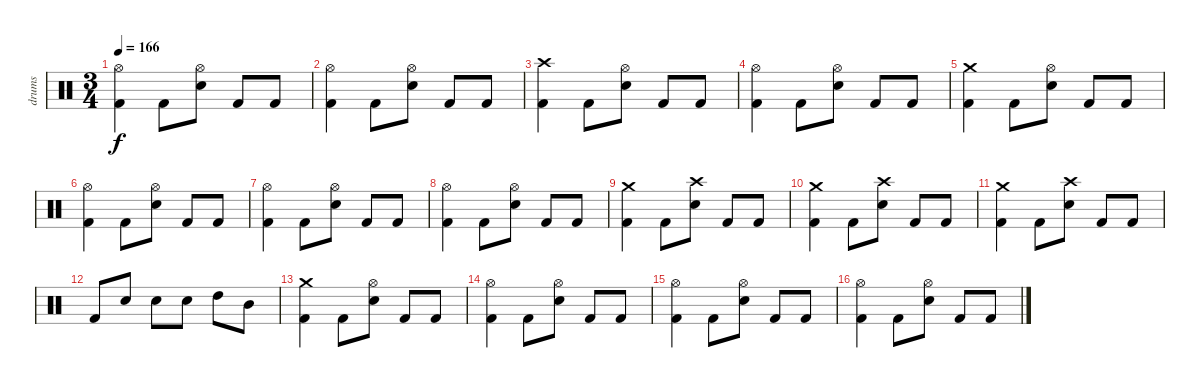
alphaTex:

\track ("drums" "drums") {instrument percussion}
\staff {score}
\articulation defaults
\ts (3 4)
\tempo 166
\clef neutral
\ks c
("Hi-Hat (open)" "Kick (hit) 2").4{dy f} "Kick (hit) 2".8 ("Hi-Hat (open)" "Electric Snare (hit)").8 "Kick (hit) 2".8 "Kick (hit) 2".8 |
("Hi-Hat (open)" "Kick (hit) 2").4 "Kick (hit) 2".8 ("Hi-Hat (open)" "Electric Snare (hit)").8 "Kick (hit) 2".8 "Kick (hit) 2".8 |
("Crash high (hit)" "Kick (hit) 2").4 "Kick (hit) 2".8 ("Hi-Hat (open)" "Electric Snare (hit)").8 "Kick (hit) 2".8 "Kick (hit) 2".8 |
("Hi-Hat (open)" "Kick (hit) 2").4 "Kick (hit) 2".8 ("Hi-Hat (open)" "Electric Snare (hit)").8 "Kick (hit) 2".8 "Kick (hit) 2".8 |
("Crash medium (hit)" "Kick (hit) 2").4 "Kick (hit) 2".8 ("Hi-Hat (open)" "Electric Snare (hit)").8 "Kick (hit) 2".8 "Kick (hit) 2".8 |
("Hi-Hat (open)" "Kick (hit) 2").4 "Kick (hit) 2".8 ("Hi-Hat (open)" "Electric Snare (hit)").8 "Kick (hit) 2".8 "Kick (hit) 2".8 |
("Hi-Hat (open)" "Kick (hit) 2").4 "Kick (hit) 2".8 ("Hi-Hat (open)" "Electric Snare (hit)").8 "Kick (hit) 2".8 "Kick (hit) 2".8 |
("Hi-Hat (open)" "Kick (hit) 2").4 "Kick (hit) 2".8 ("Hi-Hat (open)" "Electric Snare (hit)").8 "Kick (hit) 2".8 "Kick (hit) 2".8 |
("Crash medium (hit)" "Kick (hit) 2").4 "Kick (hit) 2".8 ("Crash high (hit)" "Electric Snare (hit)").8 "Kick (hit) 2".8 "Kick (hit) 2".8 |
("Crash medium (hit)" "Kick (hit) 2").4 "Kick (hit) 2".8 ("Crash high (hit)" "Electric Snare (hit)").8 "Kick (hit) 2".8 "Kick (hit) 2".8 |
("Crash medium (hit)" "Kick (hit) 2").4 "Kick (hit) 2".8 ("Crash high (hit)" "Electric Snare (hit)").8 "Kick (hit) 2".8 "Kick (hit) 2".8 |
"Kick (hit) 2".8 "Electric Snare (hit)".8 "Electric Snare (hit)".8 "Electric Snare (hit)".8 "High Tom (hit)".8 "Mid Tom (hit)".8 |
("Crash medium (hit)" "Kick (hit) 2").4 "Kick (hit) 2".8 ("Hi-Hat (open)" "Electric Snare (hit)").8 "Kick (hit) 2".8 "Kick (hit) 2".8 |
("Hi-Hat (open)" "Kick (hit) 2").4 "Kick (hit) 2".8 ("Hi-Hat (open)" "Electric Snare (hit)").8 "Kick (hit) 2".8 "Kick (hit) 2".8 |
("Hi-Hat (open)" "Kick (hit) 2").4 "Kick (hit) 2".8 ("Hi-Hat (open)" "Electric Snare (hit)").8 "Kick (hit) 2".8 "Kick (hit) 2".8 |
("Hi-Hat (open)" "Kick (hit) 2").4 "Kick (hit) 2".8 ("Hi-Hat (open)" "Electric Snare (hit)").8 "Kick (hit) 2".8 "Kick (hit) 2".8
